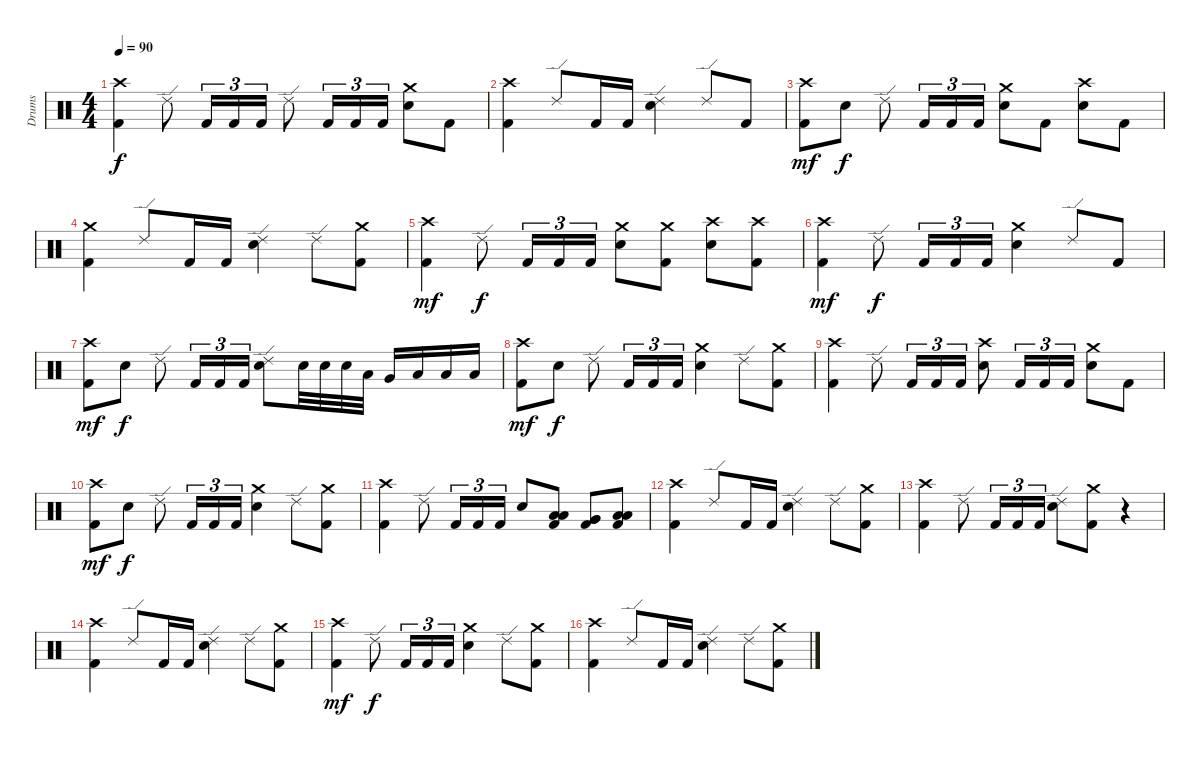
\track ("Drums" "Drums") {instrument percussion}
\staff {score}
\articulation defaults
\ts (4 4)
\tempo 90
\clef neutral
\ks c
("Crash high (hit)" "Kick (hit) 2").4{dy f} "Ride (edge) 2".8 "Kick (hit) 2".16{tu (3 2)} "Kick (hit) 2".16{tu (3 2)} "Kick (hit) 2".16{tu (3 2)} "Ride (edge) 2".8 "Kick (hit) 2".16{tu (3 2)} "Kick (hit) 2".16{tu (3 2)} "Kick (hit) 2".16{tu (3 2)} ("Crash medium (hit)" "Electric Snare (hit)").8 "Kick (hit) 2".8 |
("Crash high (hit)" "Kick (hit) 2").4 "Ride (edge) 2".8 "Kick (hit) 2".16 "Kick (hit) 2".16 ("Ride (edge) 2" "Electric Snare (hit)").4 "Ride (edge) 2".8 "Kick (hit) 2".8 |
("Crash high (hit)" "Kick (hit) 2").8{dy mf} "Electric Snare (hit)".8{dy f} "Ride (edge) 2".8 "Kick (hit) 2".16{tu (3 2)} "Kick (hit) 2".16{tu (3 2)} "Kick (hit) 2".16{tu (3 2)} ("Crash medium (hit)" "Electric Snare (hit)").8 "Kick (hit) 2".8 ("Crash high (hit)" "Electric Snare (hit)").8 "Kick (hit) 2".8 |
("Crash medium (hit)" "Kick (hit) 2").4 "Ride (edge) 2".8 "Kick (hit) 2".16 "Kick (hit) 2".16 ("Ride (edge) 2" "Electric Snare (hit)").4 "Ride (edge) 2".8 ("Crash medium (hit)" "Kick (hit) 2").8 |
("Crash high (hit)" "Kick (hit) 2").4{dy mf} "Ride (edge) 2".8{dy f} "Kick (hit) 2".16{tu (3 2)} "Kick (hit) 2".16{tu (3 2)} "Kick (hit) 2".16{tu (3 2)} ("Crash medium (hit)" "Electric Snare (hit)").8 ("Crash medium (hit)" "Kick (hit) 2").8 ("Crash high (hit)" "Electric Snare (hit)").8 ("Crash high (hit)" "Kick (hit) 2").8 |
("Crash high (hit)" "Kick (hit) 2").4{dy mf} "Ride (edge) 2".8{dy f} "Kick (hit) 2".16{tu (3 2)} "Kick (hit) 2".16{tu (3 2)} "Kick (hit) 2".16{tu (3 2)} ("Crash medium (hit)" "Electric Snare (hit)").4 "Ride (edge) 2".8 "Kick (hit) 2".8 |
("Crash high (hit)" "Kick (hit) 2").8{dy mf} "Electric Snare (hit)".8{dy f} "Ride (edge) 2".8 "Kick (hit) 2".16{tu (3 2)} "Kick (hit) 2".16{tu (3 2)} "Kick (hit) 2".16{tu (3 2)} ("Ride (edge) 2" "Electric Snare (hit)").8 "Electric Snare (hit)".32 "Electric Snare (hit)".32 "Electric Snare (hit)".32 "Low Tom (hit)".32 "Very Low Tom (hit)".16 "Low Floor Tom (hit)".16 "Low Floor Tom (hit)".16 "Low Floor Tom (hit)".16 |
("Crash high (hit)" "Kick (hit) 2").8{dy mf} "Electric Snare (hit)".8{dy f} "Ride (edge) 2".8 "Kick (hit) 2".16{tu (3 2)} "Kick (hit) 2".16{tu (3 2)} "Kick (hit) 2".16{tu (3 2)} ("Crash medium (hit)" "Electric Snare (hit)").4 "Ride (edge) 2".8 ("Crash medium (hit)" "Kick (hit) 2").8 |
("Crash high (hit)" "Kick (hit) 2").4 "Ride (edge) 2".8 "Kick (hit) 2".16{tu (3 2)} "Kick (hit) 2".16{tu (3 2)} "Kick (hit) 2".16{tu (3 2)} ("Crash high (hit)" "Electric Snare (hit)").8 "Kick (hit) 2".16{tu (3 2)} "Kick (hit) 2".16{tu (3 2)} "Kick (hit) 2".16{tu (3 2)} ("Crash medium (hit)" "Electric Snare (hit)").8 "Kick (hit) 2".8 |
("Crash high (hit)" "Kick (hit) 2").8{dy mf} "Electric Snare (hit)".8{dy f} "Ride (edge) 2".8 "Kick (hit) 2".16{tu (3 2)} "Kick (hit) 2".16{tu (3 2)} "Kick (hit) 2".16{tu (3 2)} ("Crash medium (hit)" "Electric Snare (hit)").4 "Ride (edge) 2".8 ("Crash medium (hit)" "Kick (hit) 2").8 |
("Crash high (hit)" "Kick (hit) 2").4 "Ride (edge) 2".8 "Kick (hit) 2".16{tu (3 2)} "Kick (hit) 2".16{tu (3 2)} "Kick (hit) 2".16{tu (3 2)} "Electric Snare (hit)".8 ("Low Tom (hit)" "Low Floor Tom (hit)" "Kick (hit) 2").8 ("Very Low Tom (hit)" "Very Low Tom (hit)" "Kick (hit) 2").8 ("Low Floor Tom (hit)" "Low Floor Tom (hit)" "Kick (hit) 2").8 |
("Crash high (hit)" "Kick (hit) 2").4 "Ride (edge) 2".8 "Kick (hit) 2".16 "Kick (hit) 2".16 ("Ride (edge) 2" "Electric Snare (hit)").4 "Ride (edge) 2".8 ("Crash medium (hit)" "Kick (hit) 2").8 |
("Crash high (hit)" "Kick (hit) 2").4 "Ride (edge) 2".8 "Kick (hit) 2".16{tu (3 2)} "Kick (hit) 2".16{tu (3 2)} "Kick (hit) 2".16{tu (3 2)} ("Ride (edge) 2" "Electric Snare (hit)").8 ("Crash medium (hit)" "Kick (hit) 2").8 r.4 |
("Crash high (hit)" "Kick (hit) 2").4 "Ride (edge) 2".8 "Kick (hit) 2".16 "Kick (hit) 2".16 ("Ride (edge) 2" "Electric Snare (hit)").4 "Ride (edge) 2".8 ("Crash medium (hit)" "Kick (hit) 2").8 |
("Crash high (hit)" "Kick (hit) 2").4{dy mf} "Ride (edge) 2".8{dy f} "Kick (hit) 2".16{tu (3 2)} "Kick (hit) 2".16{tu (3 2)} "Kick (hit) 2".16{tu (3 2)} ("Crash medium (hit)" "Electric Snare (hit)").4 "Ride (edge) 2".8 ("Crash medium (hit)" "Kick (hit) 2").8 |
("Crash high (hit)" "Kick (hit) 2").4 "Ride (edge) 2".8 "Kick (hit) 2".16 "Kick (hit) 2".16 ("Ride (edge) 2" "Electric Snare (hit)").4 "Ride (edge) 2".8 ("Crash medium (hit)" "Kick (hit) 2").8
